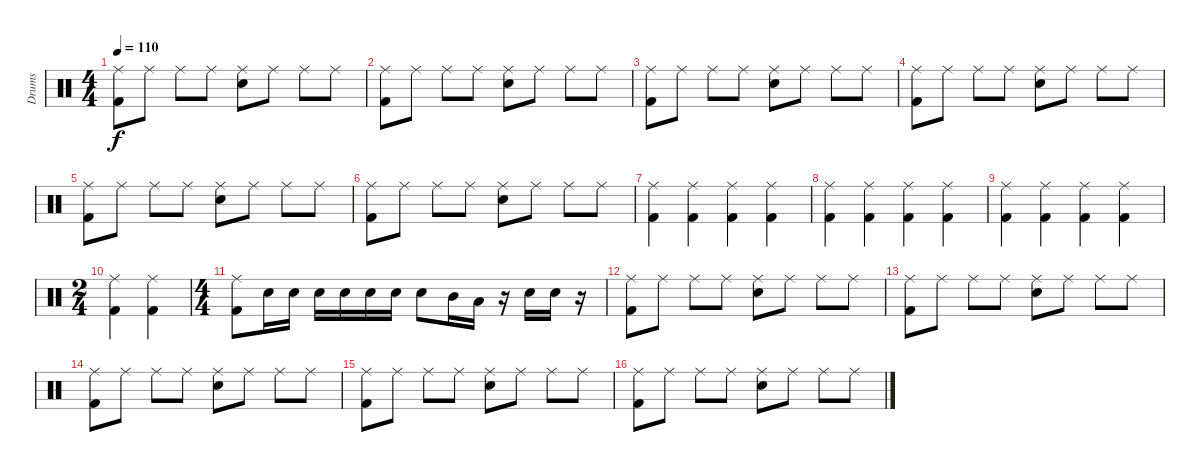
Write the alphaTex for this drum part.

\track ("Drums" "Drums") {instrument percussion}
\staff {score}
\articulation defaults
\ts (4 4)
\tempo 110
\clef neutral
\ks c
("Ride (middle)" "Kick (hit) 2").8{dy f} "Ride (middle)".8 "Ride (middle)".8 "Ride (middle)".8 ("Ride (middle)" "Snare (hit) 2").8 "Ride (middle)".8 "Ride (middle)".8 "Ride (middle)".8 |
("Ride (middle)" "Kick (hit) 2").8 "Ride (middle)".8 "Ride (middle)".8 "Ride (middle)".8 ("Ride (middle)" "Snare (hit) 2").8 "Ride (middle)".8 "Ride (middle)".8 "Ride (middle)".8 |
("Ride (middle)" "Kick (hit) 2").8 "Ride (middle)".8 "Ride (middle)".8 "Ride (middle)".8 ("Ride (middle)" "Snare (hit) 2").8 "Ride (middle)".8 "Ride (middle)".8 "Ride (middle)".8 |
("Ride (middle)" "Kick (hit) 2").8 "Ride (middle)".8 "Ride (middle)".8 "Ride (middle)".8 ("Ride (middle)" "Snare (hit) 2").8 "Ride (middle)".8 "Ride (middle)".8 "Ride (middle)".8 |
("Ride (middle)" "Kick (hit) 2").8 "Ride (middle)".8 "Ride (middle)".8 "Ride (middle)".8 ("Ride (middle)" "Snare (hit) 2").8 "Ride (middle)".8 "Ride (middle)".8 "Ride (middle)".8 |
("Ride (middle)" "Kick (hit) 2").8 "Ride (middle)".8 "Ride (middle)".8 "Ride (middle)".8 ("Ride (middle)" "Snare (hit) 2").8 "Ride (middle)".8 "Ride (middle)".8 "Ride (middle)".8 |
("Ride (middle)" "Kick (hit) 2").4 ("Ride (middle)" "Kick (hit) 2").4 ("Ride (middle)" "Kick (hit) 2").4 ("Ride (middle)" "Kick (hit) 2").4 |
("Ride (middle)" "Kick (hit) 2").4 ("Ride (middle)" "Kick (hit) 2").4 ("Ride (middle)" "Kick (hit) 2").4 ("Ride (middle)" "Kick (hit) 2").4 |
("Ride (middle)" "Kick (hit) 2").4 ("Ride (middle)" "Kick (hit) 2").4 ("Ride (middle)" "Kick (hit) 2").4 ("Ride (middle)" "Kick (hit) 2").4 |
\ts (2 4)
("Ride (middle)" "Kick (hit) 2").4 ("Ride (middle)" "Kick (hit) 2").4 |
\ts (4 4)
("Ride (middle)" "Kick (hit) 2").8 "Snare (hit) 2".16 "Snare (hit) 2".16 "Snare (hit) 2".16 "Snare (hit) 2".16 "Snare (hit) 2".16 "Snare (hit) 2".16 "Snare (hit) 2".8 "Mid Tom (hit)".16 "Low Floor Tom (hit)".16 r.16 "Snare (hit) 2".16 "Snare (hit) 2".16 r.16 |
("Ride (middle)" "Kick (hit) 2").8 "Ride (middle)".8 "Ride (middle)".8 "Ride (middle)".8 ("Ride (middle)" "Snare (hit) 2").8 "Ride (middle)".8 "Ride (middle)".8 "Ride (middle)".8 |
("Ride (middle)" "Kick (hit) 2").8 "Ride (middle)".8 "Ride (middle)".8 "Ride (middle)".8 ("Ride (middle)" "Snare (hit) 2").8 "Ride (middle)".8 "Ride (middle)".8 "Ride (middle)".8 |
("Ride (middle)" "Kick (hit) 2").8 "Ride (middle)".8 "Ride (middle)".8 "Ride (middle)".8 ("Ride (middle)" "Snare (hit) 2").8 "Ride (middle)".8 "Ride (middle)".8 "Ride (middle)".8 |
("Ride (middle)" "Kick (hit) 2").8 "Ride (middle)".8 "Ride (middle)".8 "Ride (middle)".8 ("Ride (middle)" "Snare (hit) 2").8 "Ride (middle)".8 "Ride (middle)".8 "Ride (middle)".8 |
("Ride (middle)" "Kick (hit) 2").8 "Ride (middle)".8 "Ride (middle)".8 "Ride (middle)".8 ("Ride (middle)" "Snare (hit) 2").8 "Ride (middle)".8 "Ride (middle)".8 "Ride (middle)".8
